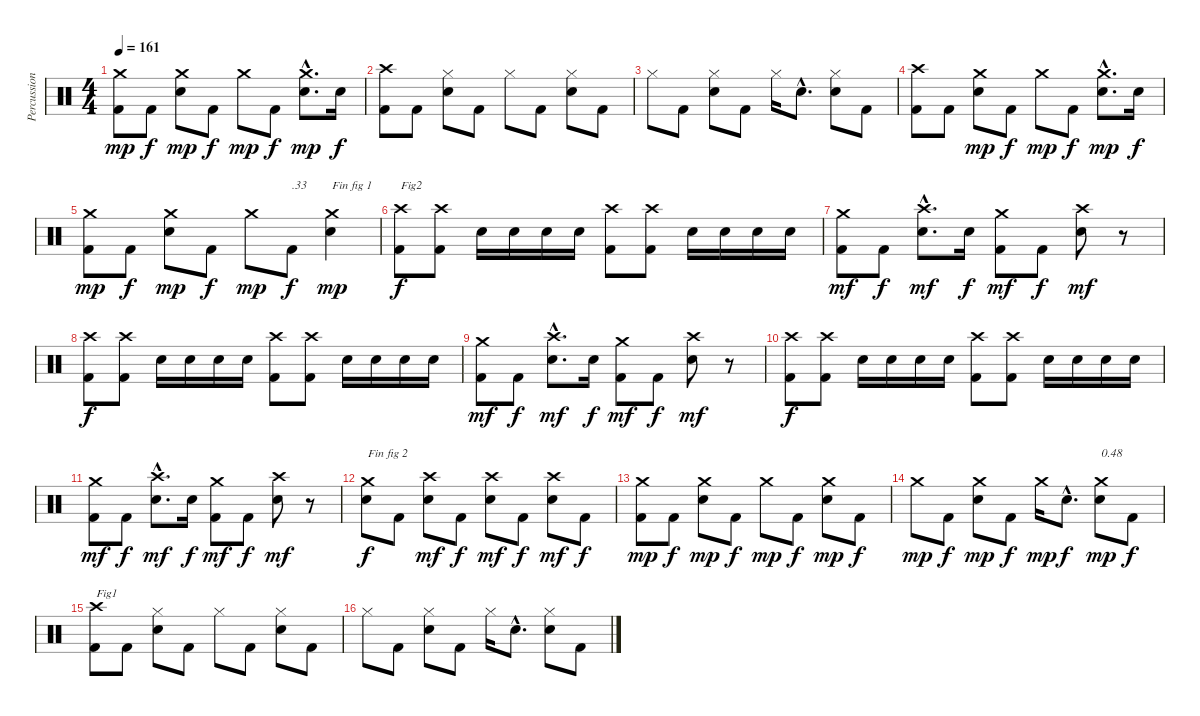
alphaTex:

\track ("Percussions" "Percussion") {instrument percussion}
\staff {score}
\articulation defaults
\ts (4 4)
\tempo 161
\clef neutral
\ks c
("Kick (hit) 2" "Crash medium (hit)").8{dy mp} "Kick (hit) 2".8{dy f} ("Electric Snare (hit)" "Crash medium (hit)").8{dy mp} "Kick (hit) 2".8{dy f} "Crash medium (hit)".8{dy mp} "Kick (hit) 2".8{dy f} ("Electric Snare (hit)"{hac} "Crash medium (hit)"{hac}).8{d dy mp} "Electric Snare (hit)".16{dy f} |
("Kick (hit) 2" "Crash high (hit)").8 "Kick (hit) 2".8 ("Electric Snare (hit)" "Hi-Hat (closed)").8 "Kick (hit) 2".8 "Hi-Hat (closed)".8 "Kick (hit) 2".8 ("Electric Snare (hit)" "Hi-Hat (closed)").8 "Kick (hit) 2".8 |
"Hi-Hat (closed)".8 "Kick (hit) 2".8 ("Electric Snare (hit)" "Hi-Hat (closed)").8 "Kick (hit) 2".8 "Hi-Hat (closed)".16 "Electric Snare (hit)"{hac}.8{d} ("Electric Snare (hit)" "Hi-Hat (closed)").8 "Kick (hit) 2".8 |
("Kick (hit) 2" "Crash high (hit)").8 "Kick (hit) 2".8 ("Electric Snare (hit)" "Crash medium (hit)").8{dy mp} "Kick (hit) 2".8{dy f} "Crash medium (hit)".8{dy mp} "Kick (hit) 2".8{dy f} ("Electric Snare (hit)"{hac} "Crash medium (hit)"{hac}).8{d dy mp} "Electric Snare (hit)".16{dy f} |
("Kick (hit) 2" "Crash medium (hit)").8{dy mp} "Kick (hit) 2".8{dy f} ("Electric Snare (hit)" "Crash medium (hit)").8{dy mp} "Kick (hit) 2".8{dy f} "Crash medium (hit)".8{dy mp} "Kick (hit) 2".8{txt ".33" dy f} ("Electric Snare (hit)" "Crash medium (hit)").4{txt "Fin fig 1" dy mp} |
("Kick (hit) 2" "Crash high (hit)").8{txt "Fig2" dy f} ("Kick (hit) 2" "Crash high (hit)").8 "Electric Snare (hit)".16 "Electric Snare (hit)".16 "Electric Snare (hit)".16 "Electric Snare (hit)".16 ("Kick (hit) 2" "Crash high (hit)").8 ("Kick (hit) 2" "Crash high (hit)").8 "Electric Snare (hit)".16 "Electric Snare (hit)".16 "Electric Snare (hit)".16 "Electric Snare (hit)".16 |
("Kick (hit) 2" "Crash medium (hit)").8{dy mf} "Kick (hit) 2".8{dy f} ("Electric Snare (hit)"{hac} "Crash high (hit)"{hac}).8{d dy mf} "Electric Snare (hit)".16{dy f} ("Kick (hit) 2" "Crash medium (hit)").8{dy mf} "Kick (hit) 2".8{dy f} ("Electric Snare (hit)" "Crash high (hit)").8{dy mf} r.8 |
("Kick (hit) 2" "Crash high (hit)").8{dy f} ("Kick (hit) 2" "Crash high (hit)").8 "Electric Snare (hit)".16 "Electric Snare (hit)".16 "Electric Snare (hit)".16 "Electric Snare (hit)".16 ("Kick (hit) 2" "Crash high (hit)").8 ("Kick (hit) 2" "Crash high (hit)").8 "Electric Snare (hit)".16 "Electric Snare (hit)".16 "Electric Snare (hit)".16 "Electric Snare (hit)".16 |
("Kick (hit) 2" "Crash medium (hit)").8{dy mf} "Kick (hit) 2".8{dy f} ("Electric Snare (hit)"{hac} "Crash high (hit)"{hac}).8{d dy mf} "Electric Snare (hit)".16{dy f} ("Kick (hit) 2" "Crash medium (hit)").8{dy mf} "Kick (hit) 2".8{dy f} ("Electric Snare (hit)" "Crash high (hit)").8{dy mf} r.8 |
("Kick (hit) 2" "Crash high (hit)").8{dy f} ("Kick (hit) 2" "Crash high (hit)").8 "Electric Snare (hit)".16 "Electric Snare (hit)".16 "Electric Snare (hit)".16 "Electric Snare (hit)".16 ("Kick (hit) 2" "Crash high (hit)").8 ("Kick (hit) 2" "Crash high (hit)").8 "Electric Snare (hit)".16 "Electric Snare (hit)".16 "Electric Snare (hit)".16 "Electric Snare (hit)".16 |
("Kick (hit) 2" "Crash medium (hit)").8{dy mf} "Kick (hit) 2".8{dy f} ("Electric Snare (hit)"{hac} "Crash high (hit)"{hac}).8{d dy mf} "Electric Snare (hit)".16{dy f} ("Kick (hit) 2" "Crash medium (hit)").8{dy mf} "Kick (hit) 2".8{dy f} ("Electric Snare (hit)" "Crash high (hit)").8{dy mf} r.8 |
("Electric Snare (hit)" "Crash medium (hit)").8{txt "Fin fig 2" dy f} "Kick (hit) 2".8 ("Electric Snare (hit)" "Crash high (hit)").8{dy mf} "Kick (hit) 2".8{dy f} ("Electric Snare (hit)" "Crash high (hit)").8{dy mf} "Kick (hit) 2".8{dy f} ("Electric Snare (hit)" "Crash high (hit)").8{dy mf} "Kick (hit) 2".8{dy f} |
("Kick (hit) 2" "Crash medium (hit)").8{dy mp} "Kick (hit) 2".8{dy f} ("Electric Snare (hit)" "Crash medium (hit)").8{dy mp} "Kick (hit) 2".8{dy f} "Crash medium (hit)".8{dy mp} "Kick (hit) 2".8{dy f} ("Electric Snare (hit)" "Crash medium (hit)").8{dy mp} "Kick (hit) 2".8{dy f} |
"Crash medium (hit)".8{dy mp} "Kick (hit) 2".8{dy f} ("Electric Snare (hit)" "Crash medium (hit)").8{dy mp} "Kick (hit) 2".8{dy f} "Crash medium (hit)".16{dy mp} "Electric Snare (hit)"{hac}.8{d dy f} ("Electric Snare (hit)" "Crash medium (hit)").8{txt "0.48" dy mp} "Kick (hit) 2".8{dy f} |
("Kick (hit) 2" "Crash high (hit)").8{txt "Fig1"} "Kick (hit) 2".8 ("Electric Snare (hit)" "Hi-Hat (closed)").8 "Kick (hit) 2".8 "Hi-Hat (closed)".8 "Kick (hit) 2".8 ("Electric Snare (hit)" "Hi-Hat (closed)").8 "Kick (hit) 2".8 |
"Hi-Hat (closed)".8 "Kick (hit) 2".8 ("Electric Snare (hit)" "Hi-Hat (closed)").8 "Kick (hit) 2".8 "Hi-Hat (closed)".16 "Electric Snare (hit)"{hac}.8{d} ("Electric Snare (hit)" "Hi-Hat (closed)").8 "Kick (hit) 2".8
